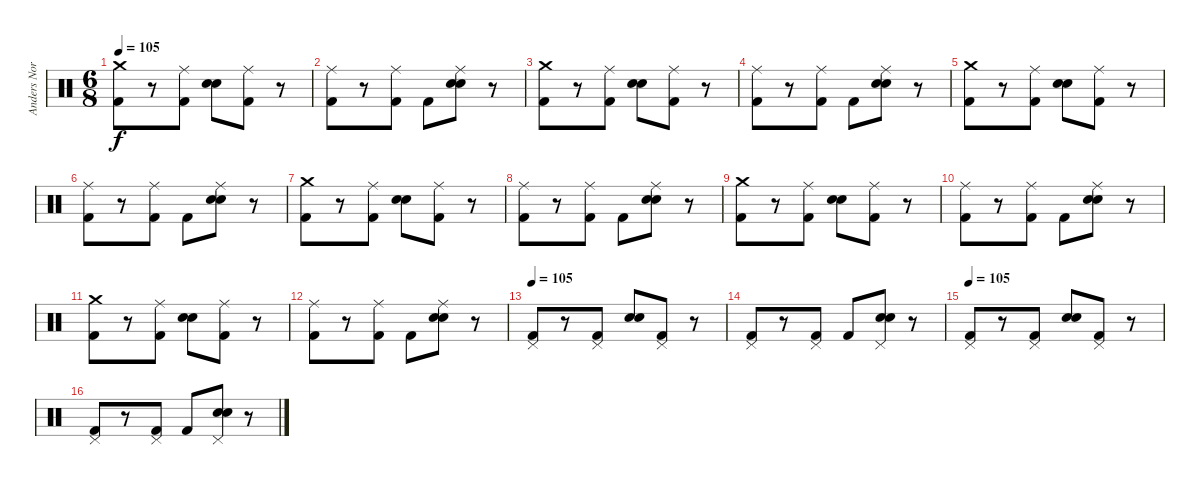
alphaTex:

\track ("Anders Nordin" "Anders Nor") {instrument percussion}
\staff {score}
\articulation defaults
\ts (6 8)
\tempo 105
\clef neutral
\ks c
("Crash medium (hit)" "Kick (hit) 2").8{dy f} r.8 ("Ride (middle)" "Kick (hit) 2").8 ("Electric Snare (hit)" "Snare (hit) 2").8 ("Ride (middle)" "Kick (hit) 2").8 r.8 |
("Ride (middle)" "Kick (hit) 2").8 r.8 ("Ride (middle)" "Kick (hit) 2").8 "Kick (hit) 2".8 ("Ride (middle)" "Electric Snare (hit)" "Snare (hit) 2").8 r.8 |
("Crash medium (hit)" "Kick (hit) 2").8 r.8 ("Ride (middle)" "Kick (hit) 2").8 ("Electric Snare (hit)" "Snare (hit) 2").8 ("Ride (middle)" "Kick (hit) 2").8 r.8 |
("Ride (middle)" "Kick (hit) 2").8 r.8 ("Ride (middle)" "Kick (hit) 2").8 "Kick (hit) 2".8 ("Ride (middle)" "Electric Snare (hit)" "Snare (hit) 2").8 r.8 |
("Crash medium (hit)" "Kick (hit) 2").8 r.8 ("Ride (middle)" "Kick (hit) 2").8 ("Electric Snare (hit)" "Snare (hit) 2").8 ("Ride (middle)" "Kick (hit) 2").8 r.8 |
("Ride (middle)" "Kick (hit) 2").8 r.8 ("Ride (middle)" "Kick (hit) 2").8 "Kick (hit) 2".8 ("Ride (middle)" "Electric Snare (hit)" "Snare (hit) 2").8 r.8 |
("Crash medium (hit)" "Kick (hit) 2").8 r.8 ("Ride (middle)" "Kick (hit) 2").8 ("Electric Snare (hit)" "Snare (hit) 2").8 ("Ride (middle)" "Kick (hit) 2").8 r.8 |
("Ride (middle)" "Kick (hit) 2").8 r.8 ("Ride (middle)" "Kick (hit) 2").8 "Kick (hit) 2".8 ("Ride (middle)" "Electric Snare (hit)" "Snare (hit) 2").8 r.8 |
("Crash medium (hit)" "Kick (hit) 2").8 r.8 ("Ride (middle)" "Kick (hit) 2").8 ("Electric Snare (hit)" "Snare (hit) 2").8 ("Ride (middle)" "Kick (hit) 2").8 r.8 |
("Ride (middle)" "Kick (hit) 2").8 r.8 ("Ride (middle)" "Kick (hit) 2").8 "Kick (hit) 2".8 ("Ride (middle)" "Electric Snare (hit)" "Snare (hit) 2").8 r.8 |
("Crash medium (hit)" "Kick (hit) 2").8 r.8 ("Ride (middle)" "Kick (hit) 2").8 ("Electric Snare (hit)" "Snare (hit) 2").8 ("Ride (middle)" "Kick (hit) 2").8 r.8 |
("Ride (middle)" "Kick (hit) 2").8 r.8 ("Ride (middle)" "Kick (hit) 2").8 "Kick (hit) 2".8 ("Ride (middle)" "Electric Snare (hit)" "Snare (hit) 2").8 r.8 |
\tempo 105
("Pedal Hi-Hat (hit)" "Kick (hit) 2").8 r.8 ("Pedal Hi-Hat (hit)" "Kick (hit) 2").8 ("Electric Snare (hit)" "Snare (hit) 2").8 ("Pedal Hi-Hat (hit)" "Kick (hit) 2").8 r.8 |
("Pedal Hi-Hat (hit)" "Kick (hit) 2").8 r.8 ("Pedal Hi-Hat (hit)" "Kick (hit) 2").8 "Kick (hit) 2".8 ("Pedal Hi-Hat (hit)" "Electric Snare (hit)" "Snare (hit) 2").8 r.8 |
\tempo 105
("Pedal Hi-Hat (hit)" "Kick (hit) 2").8 r.8 ("Pedal Hi-Hat (hit)" "Kick (hit) 2").8 ("Electric Snare (hit)" "Snare (hit) 2").8 ("Pedal Hi-Hat (hit)" "Kick (hit) 2").8 r.8 |
("Pedal Hi-Hat (hit)" "Kick (hit) 2").8 r.8 ("Pedal Hi-Hat (hit)" "Kick (hit) 2").8 "Kick (hit) 2".8 ("Pedal Hi-Hat (hit)" "Electric Snare (hit)" "Snare (hit) 2").8 r.8
